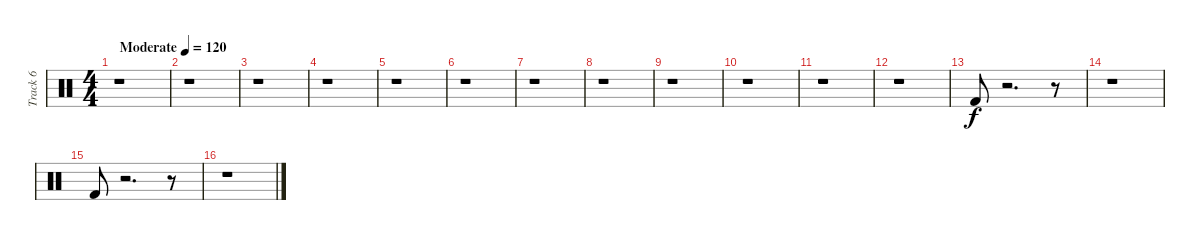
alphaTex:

\track ("Track 6" "Track 6") {instrument percussion}
\staff {score}
\articulation defaults
\ts (4 4)
\tempo (120 "Moderate")
\clef neutral
\ks c
r.1{dy f} |
r.1 |
r.1 |
r.1 |
r.1 |
r.1 |
r.1 |
r.1 |
r.1 |
r.1 |
r.1 |
r.1 |
"Kick (hit) 2".8 r.2{d} r.8 |
r.1 |
"Kick (hit) 2".8 r.2{d} r.8 |
r.1
